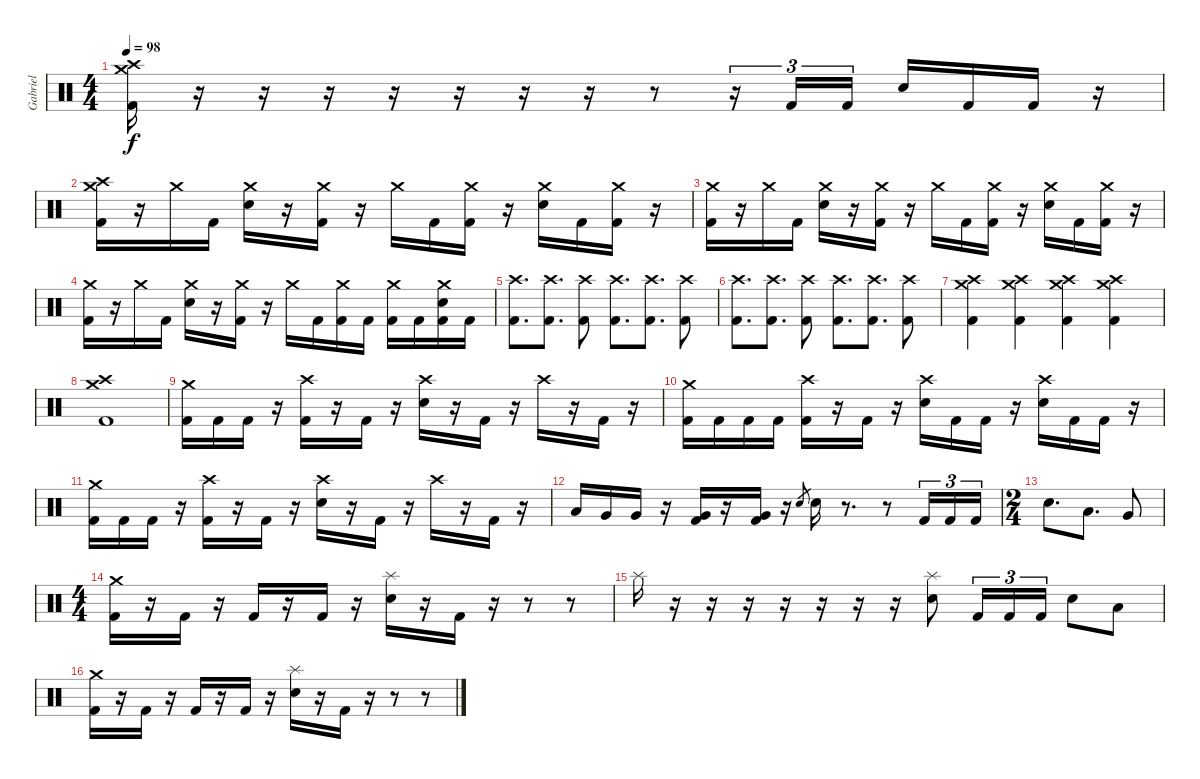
\track ("Gabriel" "Gabriel") {instrument percussion}
\staff {score}
\articulation defaults
\ts (4 4)
\tempo 98
\clef neutral
\ks c
("Crash medium (hit)" "Crash high (hit)" "Kick (hit) 2").16{dy f} r.16 r.16 r.16 r.16 r.16 r.16 r.16 r.8 r.16{tu (3 2)} "Kick (hit) 2".16{tu (3 2)} "Kick (hit) 2".16{tu (3 2)} "Electric Snare (hit)".16 "Kick (hit) 2".16 "Kick (hit) 2".16 r.16 |
("Crash medium (hit)" "Crash high (hit)" "Kick (hit) 2").16 r.16 "Crash medium (hit)".16 "Kick (hit) 2".16 ("Crash medium (hit)" "Electric Snare (hit)").16 r.16 ("Crash medium (hit)" "Kick (hit) 2").16 r.16 "Crash medium (hit)".16 "Kick (hit) 2".16 ("Crash medium (hit)" "Kick (hit) 2").16 r.16 ("Crash medium (hit)" "Electric Snare (hit)").16 "Kick (hit) 2".16 ("Crash medium (hit)" "Kick (hit) 2").16 r.16 |
("Crash medium (hit)" "Kick (hit) 2").16 r.16 "Crash medium (hit)".16 "Kick (hit) 2".16 ("Crash medium (hit)" "Electric Snare (hit)").16 r.16 ("Crash medium (hit)" "Kick (hit) 2").16 r.16 "Crash medium (hit)".16 "Kick (hit) 2".16 ("Crash medium (hit)" "Kick (hit) 2").16 r.16 ("Crash medium (hit)" "Electric Snare (hit)").16 "Kick (hit) 2".16 ("Crash medium (hit)" "Kick (hit) 2").16 r.16 |
("Crash medium (hit)" "Kick (hit) 2").16 r.16 "Crash medium (hit)".16 "Kick (hit) 2".16 ("Crash medium (hit)" "Electric Snare (hit)").16 r.16 ("Crash medium (hit)" "Kick (hit) 2").16 r.16 "Crash medium (hit)".16 "Kick (hit) 2".16 ("Crash medium (hit)" "Kick (hit) 2").16 "Kick (hit) 2".16 ("Crash medium (hit)" "Kick (hit) 2").16 "Kick (hit) 2".16 ("Crash medium (hit)" "Electric Snare (hit)" "Kick (hit) 2").16 "Kick (hit) 2".16 |
("Crash high (hit)" "Kick (hit) 2").8{d} ("Crash high (hit)" "Kick (hit) 2").8{d} ("Crash high (hit)" "Kick (hit) 2").8 ("Crash high (hit)" "Kick (hit) 2").8{d} ("Crash high (hit)" "Kick (hit) 2").8{d} ("Crash high (hit)" "Kick (hit) 2").8 |
("Crash high (hit)" "Kick (hit) 2").8{d} ("Crash high (hit)" "Kick (hit) 2").8{d} ("Crash high (hit)" "Kick (hit) 2").8 ("Crash high (hit)" "Kick (hit) 2").8{d} ("Crash high (hit)" "Kick (hit) 2").8{d} ("Crash high (hit)" "Kick (hit) 2").8 |
("Crash high (hit)" "Crash medium (hit)" "Kick (hit) 2").4 ("Crash high (hit)" "Crash medium (hit)" "Kick (hit) 2").4 ("Crash high (hit)" "Crash medium (hit)" "Kick (hit) 2").4 ("Crash high (hit)" "Crash medium (hit)" "Kick (hit) 2").4 |
("Crash high (hit)" "Crash medium (hit)" "Kick (hit) 2").1 |
("Crash medium (hit)" "Kick (hit) 2").16 "Kick (hit) 2".16 "Kick (hit) 2".16 r.16 ("Crash high (hit)" "Kick (hit) 2").16 r.16 "Kick (hit) 2".16 r.16 ("Crash high (hit)" "Electric Snare (hit)").16 r.16 "Kick (hit) 2".16 r.16 "Crash high (hit)".16 r.16 "Kick (hit) 2".16 r.16 |
("Crash medium (hit)" "Kick (hit) 2").16 "Kick (hit) 2".16 "Kick (hit) 2".16 "Kick (hit) 2".16 ("Crash high (hit)" "Kick (hit) 2").16 r.16 "Kick (hit) 2".16 r.16 ("Crash high (hit)" "Electric Snare (hit)").16 "Kick (hit) 2".16 "Kick (hit) 2".16 r.16 ("Crash high (hit)" "Electric Snare (hit)").16 "Kick (hit) 2".16 "Kick (hit) 2".16 r.16 |
("Crash medium (hit)" "Kick (hit) 2").16 "Kick (hit) 2".16 "Kick (hit) 2".16 r.16 ("Crash high (hit)" "Kick (hit) 2").16 r.16 "Kick (hit) 2".16 r.16 ("Crash high (hit)" "Electric Snare (hit)").16 r.16 "Kick (hit) 2".16 r.16 "Crash high (hit)".16 r.16 "Kick (hit) 2".16 r.16 |
"Low Tom (hit)".16 "Very Low Tom (hit)".16 "Very Low Tom (hit)".16 r.16 ("Very Low Tom (hit)" "Kick (hit) 2").16 r.16 ("Very Low Tom (hit)" "Kick (hit) 2").16 r.16 "Electric Snare (hit)".8{gr} "Electric Snare (hit)".16 r.8{d} r.8 "Kick (hit) 2".16{tu (3 2)} "Kick (hit) 2".16{tu (3 2)} "Kick (hit) 2".16{tu (3 2)} |
\ts (2 4)
"Electric Snare (hit)".8{d} "Low Tom (hit)".8{d} "Very Low Tom (hit)".8 |
\ts (4 4)
("Crash medium (hit)" "Kick (hit) 2").16 r.16 "Kick (hit) 2".16 r.16 "Kick (hit) 2".16 r.16 "Kick (hit) 2".16 r.16 ("Splash (hit)" "Electric Snare (hit)").16 r.16 "Kick (hit) 2".16 r.16 r.8 r.8 |
"Splash (hit)".16 r.16 r.16 r.16 r.16 r.16 r.16 r.16 ("Splash (hit)" "Electric Snare (hit)").8 "Kick (hit) 2".16{tu (3 2)} "Kick (hit) 2".16{tu (3 2)} "Kick (hit) 2".16{tu (3 2)} "Electric Snare (hit)".8 "Low Tom (hit)".8 |
("Crash medium (hit)" "Kick (hit) 2").16 r.16 "Kick (hit) 2".16 r.16 "Kick (hit) 2".16 r.16 "Kick (hit) 2".16 r.16 ("Splash (hit)" "Electric Snare (hit)").16 r.16 "Kick (hit) 2".16 r.16 r.8 r.8
